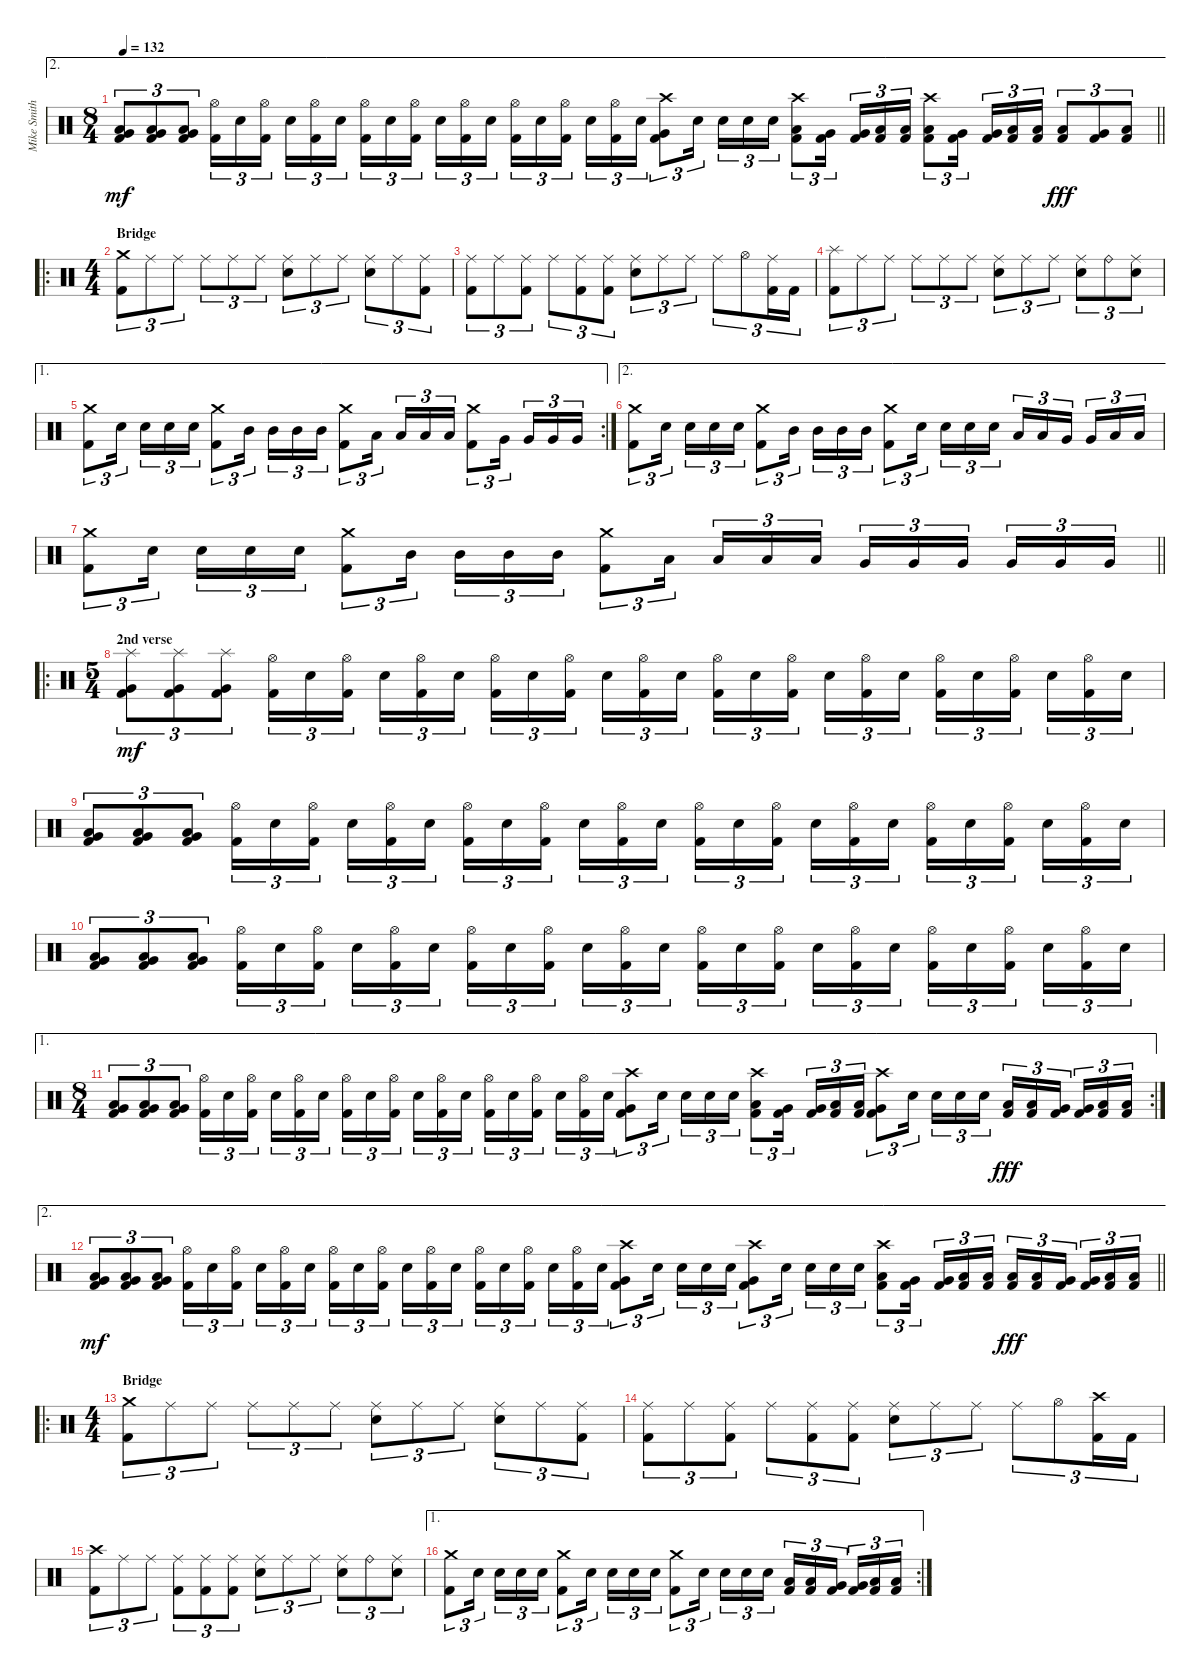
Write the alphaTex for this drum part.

\track ("Mike Smith" "Mike Smith") {instrument percussion}
\staff {score}
\articulation defaults
\ae 2
\ts (8 4)
\tempo 132
\clef neutral
\barLineRight lightlight
\ks c
("Kick (hit) 2" "Very Low Tom (hit)" "Low Floor Tom (hit)").8{tu (3 2) dy mf} ("Kick (hit) 2" "Very Low Tom (hit)" "Low Floor Tom (hit)").8{tu (3 2)} ("Kick (hit) 2" "Very Low Tom (hit)" "Low Floor Tom (hit)").8{tu (3 2)} ("Hi-Hat (open)" "Kick (hit) 2").16{tu (3 2)} "Electric Snare (hit)".16{tu (3 2)} ("Hi-Hat (open)" "Kick (hit) 2").16{tu (3 2) beam splitsecondary} "Electric Snare (hit)".16{tu (3 2)} ("Hi-Hat (open)" "Kick (hit) 2").16{tu (3 2)} "Electric Snare (hit)".16{tu (3 2)} ("Hi-Hat (open)" "Kick (hit) 2").16{tu (3 2)} "Electric Snare (hit)".16{tu (3 2)} ("Hi-Hat (open)" "Kick (hit) 2").16{tu (3 2) beam splitsecondary} "Electric Snare (hit)".16{tu (3 2)} ("Hi-Hat (open)" "Kick (hit) 2").16{tu (3 2)} "Electric Snare (hit)".16{tu (3 2)} ("Hi-Hat (open)" "Kick (hit) 2").16{tu (3 2)} "Electric Snare (hit)".16{tu (3 2)} ("Hi-Hat (open)" "Kick (hit) 2").16{tu (3 2) beam splitsecondary} "Electric Snare (hit)".16{tu (3 2)} ("Hi-Hat (open)" "Kick (hit) 2").16{tu (3 2)} "Electric Snare (hit)".16{tu (3 2)} ("Crash high (hit)" "Very Low Tom (hit)" "Kick (hit) 2").8{tu (3 2)} "Electric Snare (hit)".16{tu (3 2) beam splitsecondary} "Electric Snare (hit)".16{tu (3 2)} "Electric Snare (hit)".16{tu (3 2)} "Electric Snare (hit)".16{tu (3 2)} ("Crash high (hit)" "Kick (hit) 2" "Low Floor Tom (hit)").8{tu (3 2)} ("Kick (hit) 2" "Very Low Tom (hit)").16{tu (3 2) beam splitsecondary} ("Kick (hit) 2" "Very Low Tom (hit)").16{tu (3 2)} ("Kick (hit) 2" "Low Floor Tom (hit)").16{tu (3 2)} ("Kick (hit) 2" "Low Floor Tom (hit)").16{tu (3 2)} ("Crash high (hit)" "Kick (hit) 2" "Low Floor Tom (hit)").8{tu (3 2)} ("Kick (hit) 2" "Very Low Tom (hit)").16{tu (3 2) beam splitsecondary} ("Kick (hit) 2" "Very Low Tom (hit)").16{tu (3 2)} ("Kick (hit) 2" "Low Floor Tom (hit)").16{tu (3 2)} ("Kick (hit) 2" "Low Floor Tom (hit)").16{tu (3 2)} ("Low Tom (hit)" "Kick (hit) 2").8{tu (3 2) dy fff} ("Very Low Tom (hit)" "Kick (hit) 2").8{tu (3 2)} ("Low Floor Tom (hit)" "Kick (hit) 2").8{tu (3 2)} |
\ro
\ts (4 4)
\section ("" "Bridge")
("Crash medium (hit)" "Kick (hit) 2").8{tu (3 2)} "Ride (middle)".8{tu (3 2)} "Ride (middle)".8{tu (3 2)} "Ride (middle)".8{tu (3 2)} "Ride (middle)".8{tu (3 2)} "Ride (middle)".8{tu (3 2)} ("Ride (middle)" "Electric Snare (hit)").8{tu (3 2)} "Ride (middle)".8{tu (3 2)} "Ride (middle)".8{tu (3 2)} ("Ride (middle)" "Electric Snare (hit)").8{tu (3 2)} "Ride (middle)".8{tu (3 2)} ("Ride (middle)" "Kick (hit) 2").8{tu (3 2)} |
("Ride (middle)" "Kick (hit) 2").8{tu (3 2)} "Ride (middle)".8{tu (3 2)} ("Ride (middle)" "Kick (hit) 2").8{tu (3 2)} "Ride (middle)".8{tu (3 2)} ("Ride (middle)" "Kick (hit) 2").8{tu (3 2)} ("Ride (middle)" "Kick (hit) 2").8{tu (3 2)} ("Ride (middle)" "Electric Snare (hit)").8{tu (3 2)} "Ride (middle)".8{tu (3 2)} "Ride (middle)".8{tu (3 2)} "Ride (middle)".8{tu (3 2)} "Hi-Hat (open)".8{tu (3 2)} ("Ride (middle)" "Kick (hit) 2").16{tu (3 2)} "Kick (hit) 2".16{tu (3 2)} |
("Splash (hit)" "Kick (hit) 2").8{tu (3 2)} "Ride (middle)".8{tu (3 2)} "Ride (middle)".8{tu (3 2)} "Ride (middle)".8{tu (3 2)} "Ride (middle)".8{tu (3 2)} "Ride (middle)".8{tu (3 2)} ("Ride (middle)" "Electric Snare (hit)").8{tu (3 2)} "Ride (middle)".8{tu (3 2)} "Ride (middle)".8{tu (3 2)} ("Ride (middle)" "Electric Snare (hit)").8{tu (3 2)} "Ride (bell)".8{tu (3 2)} ("Ride (middle)" "Electric Snare (hit)").8{tu (3 2)} |
\ae 1
\rc 2
("Crash medium (hit)" "Kick (hit) 2").8{tu (3 2)} "Electric Snare (hit)".16{tu (3 2) beam splitsecondary} "Electric Snare (hit)".16{tu (3 2)} "Electric Snare (hit)".16{tu (3 2)} "Electric Snare (hit)".16{tu (3 2)} ("Crash medium (hit)" "Kick (hit) 2").8{tu (3 2)} "Mid Tom (hit)".16{tu (3 2) beam splitsecondary} "Mid Tom (hit)".16{tu (3 2)} "Mid Tom (hit)".16{tu (3 2)} "Mid Tom (hit)".16{tu (3 2)} ("Crash medium (hit)" "Kick (hit) 2").8{tu (3 2)} "Low Tom (hit)".16{tu (3 2) beam splitsecondary} "Low Tom (hit)".16{tu (3 2)} "Low Tom (hit)".16{tu (3 2)} "Low Tom (hit)".16{tu (3 2)} ("Crash medium (hit)" "Kick (hit) 2").8{tu (3 2)} "Very Low Tom (hit)".16{tu (3 2) beam splitsecondary} "Very Low Tom (hit)".16{tu (3 2)} "Very Low Tom (hit)".16{tu (3 2)} "Very Low Tom (hit)".16{tu (3 2)} |
\ae 2
("Crash medium (hit)" "Kick (hit) 2").8{tu (3 2)} "Electric Snare (hit)".16{tu (3 2) beam splitsecondary} "Electric Snare (hit)".16{tu (3 2)} "Electric Snare (hit)".16{tu (3 2)} "Electric Snare (hit)".16{tu (3 2)} ("Crash medium (hit)" "Kick (hit) 2").8{tu (3 2)} "Mid Tom (hit)".16{tu (3 2) beam splitsecondary} "Mid Tom (hit)".16{tu (3 2)} "Mid Tom (hit)".16{tu (3 2)} "Mid Tom (hit)".16{tu (3 2)} ("Crash medium (hit)" "Kick (hit) 2").8{tu (3 2)} "Electric Snare (hit)".16{tu (3 2) beam splitsecondary} "Electric Snare (hit)".16{tu (3 2)} "Electric Snare (hit)".16{tu (3 2)} "Electric Snare (hit)".16{tu (3 2)} "Low Tom (hit)".16{tu (3 2)} "Low Tom (hit)".16{tu (3 2)} "Very Low Tom (hit)".16{tu (3 2) beam splitsecondary} "Very Low Tom (hit)".16{tu (3 2)} "Low Floor Tom (hit)".16{tu (3 2)} "Low Floor Tom (hit)".16{tu (3 2)} |
\barLineRight lightlight
("Crash medium (hit)" "Kick (hit) 2").8{tu (3 2)} "Electric Snare (hit)".16{tu (3 2) beam splitsecondary} "Electric Snare (hit)".16{tu (3 2)} "Electric Snare (hit)".16{tu (3 2)} "Electric Snare (hit)".16{tu (3 2)} ("Crash medium (hit)" "Kick (hit) 2").8{tu (3 2)} "Mid Tom (hit)".16{tu (3 2) beam splitsecondary} "Mid Tom (hit)".16{tu (3 2)} "Mid Tom (hit)".16{tu (3 2)} "Mid Tom (hit)".16{tu (3 2)} ("Crash medium (hit)" "Kick (hit) 2").8{tu (3 2)} "Low Tom (hit)".16{tu (3 2) beam splitsecondary} "Low Tom (hit)".16{tu (3 2)} "Low Tom (hit)".16{tu (3 2)} "Low Tom (hit)".16{tu (3 2)} "Very Low Tom (hit)".16{tu (3 2)} "Very Low Tom (hit)".16{tu (3 2)} "Very Low Tom (hit)".16{tu (3 2) beam splitsecondary} "Very Low Tom (hit)".16{tu (3 2)} "Very Low Tom (hit)".16{tu (3 2)} "Very Low Tom (hit)".16{tu (3 2)} |
\ro
\ts (5 4)
\section ("" "2nd verse")
("Splash (hit)" "Very Low Tom (hit)" "Kick (hit) 2").8{tu (3 2) dy mf} ("Splash (hit)" "Very Low Tom (hit)" "Kick (hit) 2").8{tu (3 2)} ("Splash (hit)" "Very Low Tom (hit)" "Kick (hit) 2").8{tu (3 2)} ("Hi-Hat (open)" "Kick (hit) 2").16{tu (3 2)} "Electric Snare (hit)".16{tu (3 2)} ("Hi-Hat (open)" "Kick (hit) 2").16{tu (3 2) beam splitsecondary} "Electric Snare (hit)".16{tu (3 2)} ("Hi-Hat (open)" "Kick (hit) 2").16{tu (3 2)} "Electric Snare (hit)".16{tu (3 2)} ("Hi-Hat (open)" "Kick (hit) 2").16{tu (3 2)} "Electric Snare (hit)".16{tu (3 2)} ("Hi-Hat (open)" "Kick (hit) 2").16{tu (3 2) beam splitsecondary} "Electric Snare (hit)".16{tu (3 2)} ("Hi-Hat (open)" "Kick (hit) 2").16{tu (3 2)} "Electric Snare (hit)".16{tu (3 2)} ("Hi-Hat (open)" "Kick (hit) 2").16{tu (3 2)} "Electric Snare (hit)".16{tu (3 2)} ("Hi-Hat (open)" "Kick (hit) 2").16{tu (3 2) beam splitsecondary} "Electric Snare (hit)".16{tu (3 2)} ("Hi-Hat (open)" "Kick (hit) 2").16{tu (3 2)} "Electric Snare (hit)".16{tu (3 2)} ("Hi-Hat (open)" "Kick (hit) 2").16{tu (3 2)} "Electric Snare (hit)".16{tu (3 2)} ("Hi-Hat (open)" "Kick (hit) 2").16{tu (3 2) beam splitsecondary} "Electric Snare (hit)".16{tu (3 2)} ("Hi-Hat (open)" "Kick (hit) 2").16{tu (3 2)} "Electric Snare (hit)".16{tu (3 2)} |
("Kick (hit) 2" "Very Low Tom (hit)" "Low Floor Tom (hit)").8{tu (3 2)} ("Kick (hit) 2" "Very Low Tom (hit)" "Low Floor Tom (hit)").8{tu (3 2)} ("Kick (hit) 2" "Very Low Tom (hit)" "Low Floor Tom (hit)").8{tu (3 2)} ("Hi-Hat (open)" "Kick (hit) 2").16{tu (3 2)} "Electric Snare (hit)".16{tu (3 2)} ("Hi-Hat (open)" "Kick (hit) 2").16{tu (3 2) beam splitsecondary} "Electric Snare (hit)".16{tu (3 2)} ("Hi-Hat (open)" "Kick (hit) 2").16{tu (3 2)} "Electric Snare (hit)".16{tu (3 2)} ("Hi-Hat (open)" "Kick (hit) 2").16{tu (3 2)} "Electric Snare (hit)".16{tu (3 2)} ("Hi-Hat (open)" "Kick (hit) 2").16{tu (3 2) beam splitsecondary} "Electric Snare (hit)".16{tu (3 2)} ("Hi-Hat (open)" "Kick (hit) 2").16{tu (3 2)} "Electric Snare (hit)".16{tu (3 2)} ("Hi-Hat (open)" "Kick (hit) 2").16{tu (3 2)} "Electric Snare (hit)".16{tu (3 2)} ("Hi-Hat (open)" "Kick (hit) 2").16{tu (3 2) beam splitsecondary} "Electric Snare (hit)".16{tu (3 2)} ("Hi-Hat (open)" "Kick (hit) 2").16{tu (3 2)} "Electric Snare (hit)".16{tu (3 2)} ("Hi-Hat (open)" "Kick (hit) 2").16{tu (3 2)} "Electric Snare (hit)".16{tu (3 2)} ("Hi-Hat (open)" "Kick (hit) 2").16{tu (3 2) beam splitsecondary} "Electric Snare (hit)".16{tu (3 2)} ("Hi-Hat (open)" "Kick (hit) 2").16{tu (3 2)} "Electric Snare (hit)".16{tu (3 2)} |
("Kick (hit) 2" "Very Low Tom (hit)" "Low Floor Tom (hit)").8{tu (3 2)} ("Kick (hit) 2" "Very Low Tom (hit)" "Low Floor Tom (hit)").8{tu (3 2)} ("Kick (hit) 2" "Very Low Tom (hit)" "Low Floor Tom (hit)").8{tu (3 2)} ("Hi-Hat (open)" "Kick (hit) 2").16{tu (3 2)} "Electric Snare (hit)".16{tu (3 2)} ("Hi-Hat (open)" "Kick (hit) 2").16{tu (3 2) beam splitsecondary} "Electric Snare (hit)".16{tu (3 2)} ("Hi-Hat (open)" "Kick (hit) 2").16{tu (3 2)} "Electric Snare (hit)".16{tu (3 2)} ("Hi-Hat (open)" "Kick (hit) 2").16{tu (3 2)} "Electric Snare (hit)".16{tu (3 2)} ("Hi-Hat (open)" "Kick (hit) 2").16{tu (3 2) beam splitsecondary} "Electric Snare (hit)".16{tu (3 2)} ("Hi-Hat (open)" "Kick (hit) 2").16{tu (3 2)} "Electric Snare (hit)".16{tu (3 2)} ("Hi-Hat (open)" "Kick (hit) 2").16{tu (3 2)} "Electric Snare (hit)".16{tu (3 2)} ("Hi-Hat (open)" "Kick (hit) 2").16{tu (3 2) beam splitsecondary} "Electric Snare (hit)".16{tu (3 2)} ("Hi-Hat (open)" "Kick (hit) 2").16{tu (3 2)} "Electric Snare (hit)".16{tu (3 2)} ("Hi-Hat (open)" "Kick (hit) 2").16{tu (3 2)} "Electric Snare (hit)".16{tu (3 2)} ("Hi-Hat (open)" "Kick (hit) 2").16{tu (3 2) beam splitsecondary} "Electric Snare (hit)".16{tu (3 2)} ("Hi-Hat (open)" "Kick (hit) 2").16{tu (3 2)} "Electric Snare (hit)".16{tu (3 2)} |
\ae 1
\rc 2
\ts (8 4)
("Kick (hit) 2" "Very Low Tom (hit)" "Low Floor Tom (hit)").8{tu (3 2)} ("Kick (hit) 2" "Very Low Tom (hit)" "Low Floor Tom (hit)").8{tu (3 2)} ("Kick (hit) 2" "Very Low Tom (hit)" "Low Floor Tom (hit)").8{tu (3 2)} ("Hi-Hat (open)" "Kick (hit) 2").16{tu (3 2)} "Electric Snare (hit)".16{tu (3 2)} ("Hi-Hat (open)" "Kick (hit) 2").16{tu (3 2) beam splitsecondary} "Electric Snare (hit)".16{tu (3 2)} ("Hi-Hat (open)" "Kick (hit) 2").16{tu (3 2)} "Electric Snare (hit)".16{tu (3 2)} ("Hi-Hat (open)" "Kick (hit) 2").16{tu (3 2)} "Electric Snare (hit)".16{tu (3 2)} ("Hi-Hat (open)" "Kick (hit) 2").16{tu (3 2) beam splitsecondary} "Electric Snare (hit)".16{tu (3 2)} ("Hi-Hat (open)" "Kick (hit) 2").16{tu (3 2)} "Electric Snare (hit)".16{tu (3 2)} ("Hi-Hat (open)" "Kick (hit) 2").16{tu (3 2)} "Electric Snare (hit)".16{tu (3 2)} ("Hi-Hat (open)" "Kick (hit) 2").16{tu (3 2) beam splitsecondary} "Electric Snare (hit)".16{tu (3 2)} ("Hi-Hat (open)" "Kick (hit) 2").16{tu (3 2)} "Electric Snare (hit)".16{tu (3 2)} ("Crash high (hit)" "Very Low Tom (hit)" "Kick (hit) 2").8{tu (3 2)} "Electric Snare (hit)".16{tu (3 2) beam splitsecondary} "Electric Snare (hit)".16{tu (3 2)} "Electric Snare (hit)".16{tu (3 2)} "Electric Snare (hit)".16{tu (3 2)} ("Crash high (hit)" "Kick (hit) 2" "Low Floor Tom (hit)").8{tu (3 2)} ("Kick (hit) 2" "Very Low Tom (hit)").16{tu (3 2) beam splitsecondary} ("Kick (hit) 2" "Very Low Tom (hit)").16{tu (3 2)} ("Kick (hit) 2" "Low Floor Tom (hit)").16{tu (3 2)} ("Kick (hit) 2" "Low Floor Tom (hit)").16{tu (3 2)} ("Crash high (hit)" "Very Low Tom (hit)" "Kick (hit) 2").8{tu (3 2)} "Electric Snare (hit)".16{tu (3 2) beam splitsecondary} "Electric Snare (hit)".16{tu (3 2)} "Electric Snare (hit)".16{tu (3 2)} "Electric Snare (hit)".16{tu (3 2)} ("Low Tom (hit)" "Kick (hit) 2").16{tu (3 2) dy fff} ("Low Tom (hit)" "Kick (hit) 2").16{tu (3 2)} ("Very Low Tom (hit)" "Kick (hit) 2").16{tu (3 2) beam splitsecondary} ("Very Low Tom (hit)" "Kick (hit) 2").16{tu (3 2)} ("Low Floor Tom (hit)" "Kick (hit) 2").16{tu (3 2)} ("Low Floor Tom (hit)" "Kick (hit) 2").16{tu (3 2)} |
\ae 2
\barLineRight lightlight
("Kick (hit) 2" "Very Low Tom (hit)" "Low Floor Tom (hit)").8{tu (3 2) dy mf} ("Kick (hit) 2" "Very Low Tom (hit)" "Low Floor Tom (hit)").8{tu (3 2)} ("Kick (hit) 2" "Very Low Tom (hit)" "Low Floor Tom (hit)").8{tu (3 2)} ("Hi-Hat (open)" "Kick (hit) 2").16{tu (3 2)} "Electric Snare (hit)".16{tu (3 2)} ("Hi-Hat (open)" "Kick (hit) 2").16{tu (3 2) beam splitsecondary} "Electric Snare (hit)".16{tu (3 2)} ("Hi-Hat (open)" "Kick (hit) 2").16{tu (3 2)} "Electric Snare (hit)".16{tu (3 2)} ("Hi-Hat (open)" "Kick (hit) 2").16{tu (3 2)} "Electric Snare (hit)".16{tu (3 2)} ("Hi-Hat (open)" "Kick (hit) 2").16{tu (3 2) beam splitsecondary} "Electric Snare (hit)".16{tu (3 2)} ("Hi-Hat (open)" "Kick (hit) 2").16{tu (3 2)} "Electric Snare (hit)".16{tu (3 2)} ("Hi-Hat (open)" "Kick (hit) 2").16{tu (3 2)} "Electric Snare (hit)".16{tu (3 2)} ("Hi-Hat (open)" "Kick (hit) 2").16{tu (3 2) beam splitsecondary} "Electric Snare (hit)".16{tu (3 2)} ("Hi-Hat (open)" "Kick (hit) 2").16{tu (3 2)} "Electric Snare (hit)".16{tu (3 2)} ("Crash high (hit)" "Very Low Tom (hit)" "Kick (hit) 2").8{tu (3 2)} "Electric Snare (hit)".16{tu (3 2) beam splitsecondary} "Electric Snare (hit)".16{tu (3 2)} "Electric Snare (hit)".16{tu (3 2)} "Electric Snare (hit)".16{tu (3 2)} ("Crash high (hit)" "Very Low Tom (hit)" "Kick (hit) 2").8{tu (3 2)} "Electric Snare (hit)".16{tu (3 2) beam splitsecondary} "Electric Snare (hit)".16{tu (3 2)} "Electric Snare (hit)".16{tu (3 2)} "Electric Snare (hit)".16{tu (3 2)} ("Crash high (hit)" "Kick (hit) 2" "Low Floor Tom (hit)").8{tu (3 2)} ("Kick (hit) 2" "Very Low Tom (hit)").16{tu (3 2) beam splitsecondary} ("Kick (hit) 2" "Very Low Tom (hit)").16{tu (3 2)} ("Kick (hit) 2" "Low Floor Tom (hit)").16{tu (3 2)} ("Kick (hit) 2" "Low Floor Tom (hit)").16{tu (3 2)} ("Low Tom (hit)" "Kick (hit) 2").16{tu (3 2) dy fff} ("Low Tom (hit)" "Kick (hit) 2").16{tu (3 2)} ("Very Low Tom (hit)" "Kick (hit) 2").16{tu (3 2) beam splitsecondary} ("Very Low Tom (hit)" "Kick (hit) 2").16{tu (3 2)} ("Low Floor Tom (hit)" "Kick (hit) 2").16{tu (3 2)} ("Low Floor Tom (hit)" "Kick (hit) 2").16{tu (3 2)} |
\ro
\ts (4 4)
\section ("" "Bridge")
("Crash medium (hit)" "Kick (hit) 2").8{tu (3 2)} "Ride (middle)".8{tu (3 2)} "Ride (middle)".8{tu (3 2)} "Ride (middle)".8{tu (3 2)} "Ride (middle)".8{tu (3 2)} "Ride (middle)".8{tu (3 2)} ("Ride (middle)" "Electric Snare (hit)").8{tu (3 2)} "Ride (middle)".8{tu (3 2)} "Ride (middle)".8{tu (3 2)} ("Ride (middle)" "Electric Snare (hit)").8{tu (3 2)} "Ride (middle)".8{tu (3 2)} ("Ride (middle)" "Kick (hit) 2").8{tu (3 2)} |
("Ride (middle)" "Kick (hit) 2").8{tu (3 2)} "Ride (middle)".8{tu (3 2)} ("Ride (middle)" "Kick (hit) 2").8{tu (3 2)} "Ride (middle)".8{tu (3 2)} ("Ride (middle)" "Kick (hit) 2").8{tu (3 2)} ("Ride (middle)" "Kick (hit) 2").8{tu (3 2)} ("Ride (middle)" "Electric Snare (hit)").8{tu (3 2)} "Ride (middle)".8{tu (3 2)} "Ride (middle)".8{tu (3 2)} "Ride (middle)".8{tu (3 2)} "Hi-Hat (open)".8{tu (3 2)} ("Crash high (hit)" "Kick (hit) 2").16{tu (3 2)} "Kick (hit) 2".16{tu (3 2)} |
("Crash high (hit)" "Kick (hit) 2").8{tu (3 2)} "Ride (middle)".8{tu (3 2)} "Ride (middle)".8{tu (3 2)} ("Ride (middle)" "Kick (hit) 2").8{tu (3 2)} ("Ride (middle)" "Kick (hit) 2").8{tu (3 2)} ("Ride (middle)" "Kick (hit) 2").8{tu (3 2)} ("Ride (middle)" "Electric Snare (hit)").8{tu (3 2)} "Ride (middle)".8{tu (3 2)} "Ride (middle)".8{tu (3 2)} ("Ride (middle)" "Electric Snare (hit)").8{tu (3 2)} "Ride (bell)".8{tu (3 2)} ("Ride (middle)" "Electric Snare (hit)").8{tu (3 2)} |
\ae 1
\rc 2
("Crash medium (hit)" "Kick (hit) 2").8{tu (3 2)} "Electric Snare (hit)".16{tu (3 2) beam splitsecondary} "Electric Snare (hit)".16{tu (3 2)} "Electric Snare (hit)".16{tu (3 2)} "Electric Snare (hit)".16{tu (3 2)} ("Crash medium (hit)" "Kick (hit) 2").8{tu (3 2)} "Electric Snare (hit)".16{tu (3 2) beam splitsecondary} "Electric Snare (hit)".16{tu (3 2)} "Electric Snare (hit)".16{tu (3 2)} "Electric Snare (hit)".16{tu (3 2)} ("Crash medium (hit)" "Kick (hit) 2").8{tu (3 2)} "Electric Snare (hit)".16{tu (3 2) beam splitsecondary} "Electric Snare (hit)".16{tu (3 2)} "Electric Snare (hit)".16{tu (3 2)} "Electric Snare (hit)".16{tu (3 2)} ("Low Tom (hit)" "Kick (hit) 2").16{tu (3 2)} ("Low Tom (hit)" "Kick (hit) 2").16{tu (3 2)} ("Very Low Tom (hit)" "Kick (hit) 2").16{tu (3 2) beam splitsecondary} ("Very Low Tom (hit)" "Kick (hit) 2").16{tu (3 2)} ("Low Floor Tom (hit)" "Kick (hit) 2").16{tu (3 2)} ("Low Floor Tom (hit)" "Kick (hit) 2").16{tu (3 2)}
